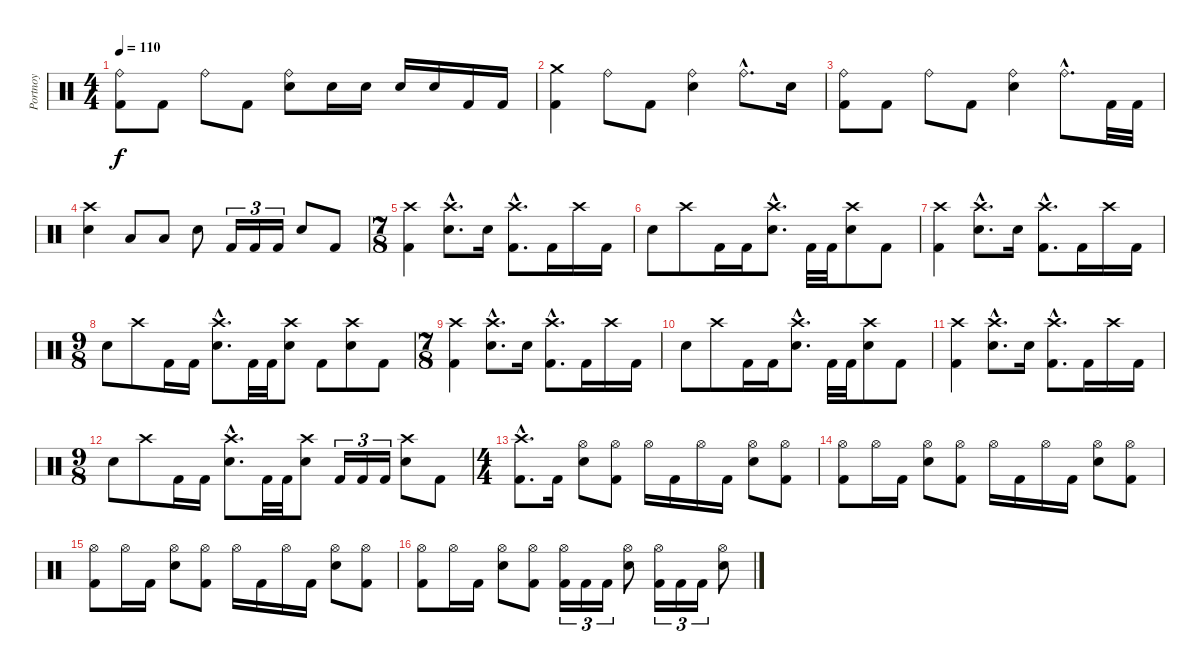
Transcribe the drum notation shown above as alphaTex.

\track ("Portnoy" "Portnoy") {instrument percussion}
\staff {score}
\articulation defaults
\ts (4 4)
\tempo 110
\clef neutral
\ks c
("Kick (hit) 2" "Ride (bell)").8{dy f} "Kick (hit) 2".8 "Ride (bell)".8 "Kick (hit) 2".8 ("Ride (bell)" "Snare (hit) 2").8 "Snare (hit) 2".16 "Snare (hit) 2".16 "Snare (hit) 2".16 "Snare (hit) 2".16 "Kick (hit) 2".16 "Kick (hit) 2".16 |
("Kick (hit) 2" "Crash medium (hit)").4 "Ride (bell)".8 "Kick (hit) 2".8 ("Ride (bell)" "Snare (hit) 2").4 "Ride (bell)"{hac}.8{d} "Snare (hit) 2".16 |
("Kick (hit) 2" "Ride (bell)").8 "Kick (hit) 2".8 "Ride (bell)".8 "Kick (hit) 2".8 ("Ride (bell)" "Snare (hit) 2").4 "Ride (bell)"{hac}.8{d} "Kick (hit) 2".32 "Kick (hit) 2".32 |
("Crash high (hit)" "Snare (hit) 2").4 "Low Tom (hit)".8 "Low Tom (hit)".8 "Snare (hit) 2".8 "Kick (hit) 2".16{tu (3 2)} "Kick (hit) 2".16{tu (3 2)} "Kick (hit) 2".16{tu (3 2)} "Snare (hit) 2".8 "Kick (hit) 2".8 |
\ts (7 8)
("Kick (hit) 2" "Crash high (hit)").4 ("Crash high (hit)"{hac} "Snare (hit) 2"{hac}).8{d} "Snare (hit) 2".16 ("Kick (hit) 2"{hac} "Crash high (hit)"{hac}).8{d} "Kick (hit) 2".16 "Crash high (hit)".16 "Kick (hit) 2".16 |
"Snare (hit) 2".8 "Crash high (hit)".8 "Kick (hit) 2".16 "Kick (hit) 2".16 ("Crash high (hit)"{hac} "Snare (hit) 2"{hac}).8{d} "Kick (hit) 2".32 "Kick (hit) 2".32 ("Crash high (hit)" "Snare (hit) 2").8 "Kick (hit) 2".8 |
("Kick (hit) 2" "Crash high (hit)").4 ("Crash high (hit)"{hac} "Snare (hit) 2"{hac}).8{d} "Snare (hit) 2".16 ("Kick (hit) 2"{hac} "Crash high (hit)"{hac}).8{d} "Kick (hit) 2".16 "Crash high (hit)".16 "Kick (hit) 2".16 |
\ts (9 8)
"Snare (hit) 2".8 "Crash high (hit)".8 "Kick (hit) 2".16 "Kick (hit) 2".16 ("Crash high (hit)"{hac} "Snare (hit) 2"{hac}).8{d} "Kick (hit) 2".32 "Kick (hit) 2".32 ("Crash high (hit)" "Snare (hit) 2").8 "Kick (hit) 2".8 ("Crash high (hit)" "Snare (hit) 2").8 "Kick (hit) 2".8 |
\ts (7 8)
("Kick (hit) 2" "Crash high (hit)").4 ("Crash high (hit)"{hac} "Snare (hit) 2"{hac}).8{d} "Snare (hit) 2".16 ("Kick (hit) 2"{hac} "Crash high (hit)"{hac}).8{d} "Kick (hit) 2".16 "Crash high (hit)".16 "Kick (hit) 2".16 |
"Snare (hit) 2".8 "Crash high (hit)".8 "Kick (hit) 2".16 "Kick (hit) 2".16 ("Crash high (hit)"{hac} "Snare (hit) 2"{hac}).8{d} "Kick (hit) 2".32 "Kick (hit) 2".32 ("Crash high (hit)" "Snare (hit) 2").8 "Kick (hit) 2".8 |
("Kick (hit) 2" "Crash high (hit)").4 ("Crash high (hit)"{hac} "Snare (hit) 2"{hac}).8{d} "Snare (hit) 2".16 ("Kick (hit) 2"{hac} "Crash high (hit)"{hac}).8{d} "Kick (hit) 2".16 "Crash high (hit)".16 "Kick (hit) 2".16 |
\ts (9 8)
"Snare (hit) 2".8 "Crash high (hit)".8 "Kick (hit) 2".16 "Kick (hit) 2".16 ("Crash high (hit)"{hac} "Snare (hit) 2"{hac}).8{d} "Kick (hit) 2".32 "Kick (hit) 2".32 ("Crash high (hit)" "Snare (hit) 2").8 "Kick (hit) 2".16{tu (3 2)} "Kick (hit) 2".16{tu (3 2)} "Kick (hit) 2".16{tu (3 2)} ("Crash high (hit)" "Snare (hit) 2").8 "Kick (hit) 2".8 |
\ts (4 4)
("Kick (hit) 2"{hac} "Crash high (hit)"{hac}).8{d} "Kick (hit) 2".16 ("Hi-Hat (open)" "Snare (hit) 2").8 ("Kick (hit) 2" "Hi-Hat (open)").8 "Hi-Hat (open)".16 "Kick (hit) 2".16 "Hi-Hat (open)".16 "Kick (hit) 2".16 ("Hi-Hat (open)" "Snare (hit) 2").8 ("Kick (hit) 2" "Hi-Hat (open)").8 |
("Kick (hit) 2" "Hi-Hat (open)").8 "Hi-Hat (open)".16 "Kick (hit) 2".16 ("Hi-Hat (open)" "Snare (hit) 2").8 ("Kick (hit) 2" "Hi-Hat (open)").8 "Hi-Hat (open)".16 "Kick (hit) 2".16 "Hi-Hat (open)".16 "Kick (hit) 2".16 ("Hi-Hat (open)" "Snare (hit) 2").8 ("Kick (hit) 2" "Hi-Hat (open)").8 |
("Kick (hit) 2" "Hi-Hat (open)").8 "Hi-Hat (open)".16 "Kick (hit) 2".16 ("Hi-Hat (open)" "Snare (hit) 2").8 ("Kick (hit) 2" "Hi-Hat (open)").8 "Hi-Hat (open)".16 "Kick (hit) 2".16 "Hi-Hat (open)".16 "Kick (hit) 2".16 ("Hi-Hat (open)" "Snare (hit) 2").8 ("Kick (hit) 2" "Hi-Hat (open)").8 |
("Kick (hit) 2" "Hi-Hat (open)").8 "Hi-Hat (open)".16 "Kick (hit) 2".16 ("Hi-Hat (open)" "Snare (hit) 2").8 ("Kick (hit) 2" "Hi-Hat (open)").8 ("Kick (hit) 2" "Hi-Hat (open)").16{tu (3 2)} "Kick (hit) 2".16{tu (3 2)} "Kick (hit) 2".16{tu (3 2)} ("Hi-Hat (open)" "Snare (hit) 2").8 ("Kick (hit) 2" "Hi-Hat (open)").16{tu (3 2)} "Kick (hit) 2".16{tu (3 2)} "Kick (hit) 2".16{tu (3 2)} ("Hi-Hat (open)" "Snare (hit) 2").8
